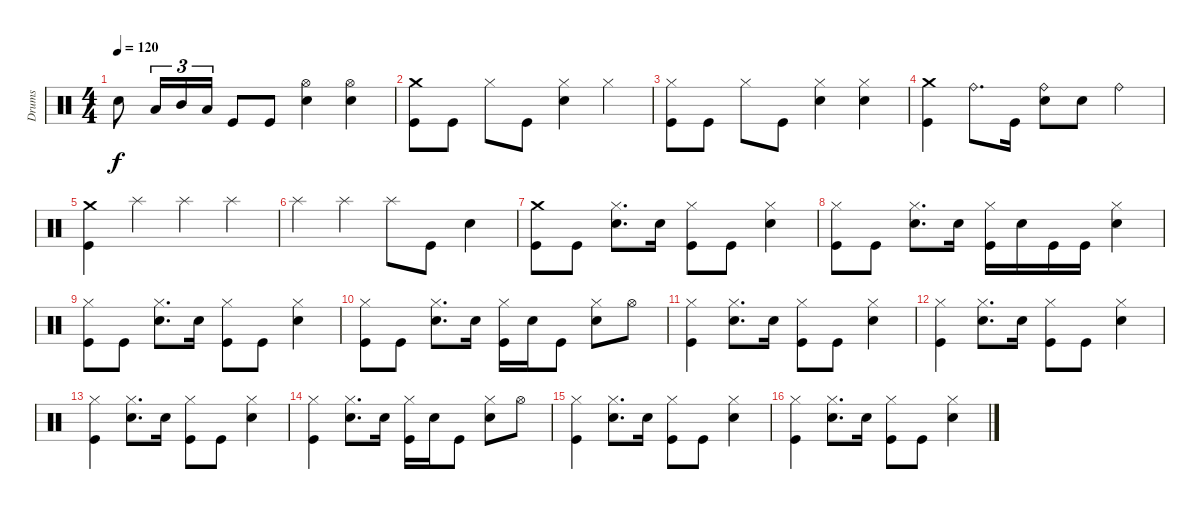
\track ("Drums" "Drums") {instrument percussion}
\staff {score}
\articulation defaults
\ts (4 4)
\tempo 120
\clef neutral
\ks c "Snare (hit) 2".8{dy f} "Low Tom (hit)".16{tu (3 2)} "Mid Tom (hit)".16{tu (3 2)} "Low Floor Tom (hit)".16{tu (3 2)} "Kick (hit)".8 "Kick (hit)".8
("Snare (hit) 2" "Hi-Hat (open)").4 ("Snare (hit) 2" "Hi-Hat (open)").4 |
("Kick (hit)" "Crash medium (hit)").8 "Kick (hit)".8 "Hi-Hat (closed)".8 "Kick (hit)".8 ("Snare (hit) 2" "Hi-Hat (closed)").4 "Hi-Hat (closed)".4 |
("Kick (hit)" "Hi-Hat (closed)").8 "Kick (hit)".8 "Hi-Hat (closed)".8 "Kick (hit)".8 ("Snare (hit) 2" "Hi-Hat (closed)").4 ("Snare (hit) 2" "Hi-Hat (closed)").4 |
("Kick (hit)" "Crash medium (hit)").4 "Ride (bell)".8{d} "Kick (hit)".16 ("Snare (hit) 2" "Ride (bell)").8 "Snare (hit) 2".8 "Ride (bell)".4 |
("Kick (hit)" "Crash medium (hit)").4 "Splash (hit)".4 "Splash (hit)".4 "Splash (hit)".4 |
"Splash (hit)".4 "Splash (hit)".4 "Splash (hit)".8 "Kick (hit)".8 "Snare (hit) 2".4 |
("Kick (hit)" "Crash medium (hit)").8 "Kick (hit)".8 ("Snare (hit) 2" "Hi-Hat (closed)").8{d} "Snare (hit) 2".16 ("Kick (hit)" "Hi-Hat (closed)").8 "Kick (hit)".8 ("Snare (hit) 2" "Hi-Hat (closed)").4 |
("Kick (hit)" "Hi-Hat (closed)").8 "Kick (hit)".8 ("Snare (hit) 2" "Hi-Hat (closed)").8{d} "Snare (hit) 2".16 ("Kick (hit)" "Hi-Hat (closed)").16 "Snare (hit) 2".16 "Kick (hit)".16 "Kick (hit)".16 ("Snare (hit) 2" "Hi-Hat (closed)").4 |
("Kick (hit)" "Hi-Hat (closed)").8 "Kick (hit)".8 ("Snare (hit) 2" "Hi-Hat (closed)").8{d} "Snare (hit) 2".16 ("Kick (hit)" "Hi-Hat (closed)").8 "Kick (hit)".8 ("Snare (hit) 2" "Hi-Hat (closed)").4 |
("Kick (hit)" "Hi-Hat (closed)").8 "Kick (hit)".8 ("Snare (hit) 2" "Hi-Hat (closed)").8{d} "Snare (hit) 2".16 ("Kick (hit)" "Hi-Hat (closed)").16 "Snare (hit) 2".16 "Kick (hit)".8 ("Snare (hit) 2" "Hi-Hat (closed)").8 "Hi-Hat (open)".8 |
("Kick (hit)" "Hi-Hat (closed)").4 ("Snare (hit) 2" "Hi-Hat (closed)").8{d} "Snare (hit) 2".16 ("Kick (hit)" "Hi-Hat (closed)").8 "Kick (hit)".8 ("Snare (hit) 2" "Hi-Hat (closed)").4 |
("Kick (hit)" "Hi-Hat (closed)").4 ("Snare (hit) 2" "Hi-Hat (closed)").8{d} "Snare (hit) 2".16 ("Kick (hit)" "Hi-Hat (closed)").8 "Kick (hit)".8 ("Snare (hit) 2" "Hi-Hat (closed)").4 |
("Kick (hit)" "Hi-Hat (closed)").4 ("Snare (hit) 2" "Hi-Hat (closed)").8{d} "Snare (hit) 2".16 ("Kick (hit)" "Hi-Hat (closed)").8 "Kick (hit)".8 ("Snare (hit) 2" "Hi-Hat (closed)").4 |
("Kick (hit)" "Hi-Hat (closed)").4 ("Snare (hit) 2" "Hi-Hat (closed)").8{d} "Snare (hit) 2".16 ("Kick (hit)" "Hi-Hat (closed)").16 "Snare (hit) 2".16 "Kick (hit)".8 ("Snare (hit) 2" "Hi-Hat (closed)").8 "Hi-Hat (open)".8 |
("Kick (hit)" "Hi-Hat (closed)").4 ("Snare (hit) 2" "Hi-Hat (closed)").8{d} "Snare (hit) 2".16 ("Kick (hit)" "Hi-Hat (closed)").8 "Kick (hit)".8 ("Snare (hit) 2" "Hi-Hat (closed)").4 |
("Kick (hit)" "Hi-Hat (closed)").4 ("Snare (hit) 2" "Hi-Hat (closed)").8{d} "Snare (hit) 2".16 ("Kick (hit)" "Hi-Hat (closed)").8 "Kick (hit)".8 ("Snare (hit) 2" "Hi-Hat (closed)").4
